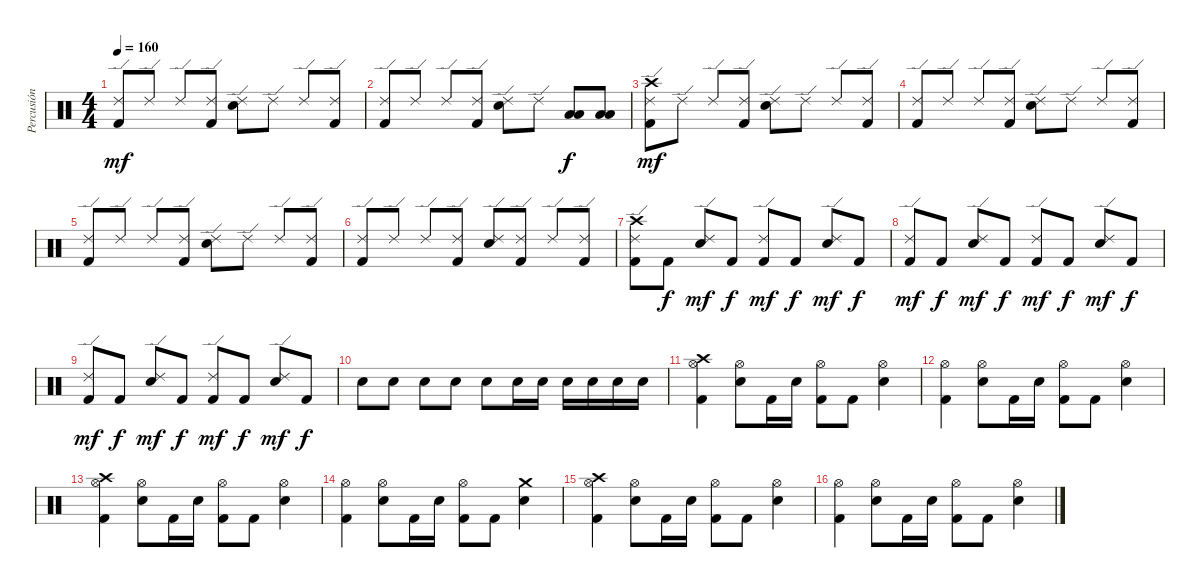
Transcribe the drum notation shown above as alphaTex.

\track ("Percusión" "Percusión") {instrument percussion}
\staff {score}
\articulation defaults
\ts (4 4)
\tempo 160
\clef neutral
\ks c
("Ride (edge) 2" "Kick (hit) 2").8{dy mf} "Ride (edge) 2".8 "Ride (edge) 2".8 ("Ride (edge) 2" "Kick (hit) 2").8 ("Ride (edge) 2" "Snare (hit) 2").8 "Ride (edge) 2".8 "Ride (edge) 2".8 ("Ride (edge) 2" "Kick (hit) 2").8 |
("Ride (edge) 2" "Kick (hit) 2").8 "Ride (edge) 2".8 "Ride (edge) 2".8 ("Ride (edge) 2" "Kick (hit) 2").8 ("Ride (edge) 2" "Snare (hit) 2").8 "Ride (edge) 2".8 ("Low Tom (hit)" "Low Floor Tom (hit)").8{dy f} ("Low Tom (hit)" "Low Floor Tom (hit)").8 |
("Crash high (hit)" "Ride (edge) 2" "Kick (hit) 2").8{dy mf} "Ride (edge) 2".8 "Ride (edge) 2".8 ("Ride (edge) 2" "Kick (hit) 2").8 ("Ride (edge) 2" "Snare (hit) 2").8 "Ride (edge) 2".8 "Ride (edge) 2".8 ("Ride (edge) 2" "Kick (hit) 2").8 |
("Ride (edge) 2" "Kick (hit) 2").8 "Ride (edge) 2".8 "Ride (edge) 2".8 ("Ride (edge) 2" "Kick (hit) 2").8 ("Ride (edge) 2" "Snare (hit) 2").8 "Ride (edge) 2".8 "Ride (edge) 2".8 ("Ride (edge) 2" "Kick (hit) 2").8 |
("Ride (edge) 2" "Kick (hit) 2").8 "Ride (edge) 2".8 "Ride (edge) 2".8 ("Ride (edge) 2" "Kick (hit) 2").8 ("Ride (edge) 2" "Snare (hit) 2").8 "Ride (edge) 2".8 "Ride (edge) 2".8 ("Ride (edge) 2" "Kick (hit) 2").8 |
("Ride (edge) 2" "Kick (hit) 2").8 "Ride (edge) 2".8 "Ride (edge) 2".8 ("Ride (edge) 2" "Kick (hit) 2").8 ("Ride (edge) 2" "Snare (hit) 2").8 ("Ride (edge) 2" "Kick (hit) 2").8 "Ride (edge) 2".8 ("Ride (edge) 2" "Kick (hit) 2").8 |
("Crash high (hit)" "Ride (edge) 2" "Kick (hit) 2").8 "Kick (hit) 2".8{dy f} ("Ride (edge) 2" "Snare (hit) 2").8{dy mf} "Kick (hit) 2".8{dy f} ("Ride (edge) 2" "Kick (hit) 2").8{dy mf} "Kick (hit) 2".8{dy f} ("Ride (edge) 2" "Snare (hit) 2").8{dy mf} "Kick (hit) 2".8{dy f} |
("Ride (edge) 2" "Kick (hit) 2").8{dy mf} "Kick (hit) 2".8{dy f} ("Ride (edge) 2" "Snare (hit) 2").8{dy mf} "Kick (hit) 2".8{dy f} ("Ride (edge) 2" "Kick (hit) 2").8{dy mf} "Kick (hit) 2".8{dy f} ("Ride (edge) 2" "Snare (hit) 2").8{dy mf} "Kick (hit) 2".8{dy f} |
("Ride (edge) 2" "Kick (hit) 2").8{dy mf} "Kick (hit) 2".8{dy f} ("Ride (edge) 2" "Snare (hit) 2").8{dy mf} "Kick (hit) 2".8{dy f} ("Ride (edge) 2" "Kick (hit) 2").8{dy mf} "Kick (hit) 2".8{dy f} ("Ride (edge) 2" "Snare (hit) 2").8{dy mf} "Kick (hit) 2".8{dy f} |
"Snare (hit) 2".8 "Snare (hit) 2".8 "Snare (hit) 2".8 "Snare (hit) 2".8 "Snare (hit) 2".8 "Snare (hit) 2".16 "Snare (hit) 2".16 "Snare (hit) 2".16 "Snare (hit) 2".16 "Snare (hit) 2".16 "Snare (hit) 2".16 |
("Crash high (hit)" "Hi-Hat (open)" "Kick (hit) 2").4 ("Hi-Hat (open)" "Snare (hit) 2").8 "Kick (hit) 2".16 "Snare (hit) 2".16 ("Hi-Hat (open)" "Kick (hit) 2").8 "Kick (hit) 2".8 ("Hi-Hat (open)" "Snare (hit) 2").4 |
("Hi-Hat (open)" "Kick (hit) 2").4 ("Hi-Hat (open)" "Snare (hit) 2").8 "Kick (hit) 2".16 "Snare (hit) 2".16 ("Hi-Hat (open)" "Kick (hit) 2").8 "Kick (hit) 2".8 ("Hi-Hat (open)" "Snare (hit) 2").4 |
("Crash high (hit)" "Hi-Hat (open)" "Kick (hit) 2").4 ("Hi-Hat (open)" "Snare (hit) 2").8 "Kick (hit) 2".16 "Snare (hit) 2".16 ("Hi-Hat (open)" "Kick (hit) 2").8 "Kick (hit) 2".8 ("Hi-Hat (open)" "Snare (hit) 2").4 |
("Hi-Hat (open)" "Kick (hit) 2").4 ("Hi-Hat (open)" "Snare (hit) 2").8 "Kick (hit) 2".16 "Snare (hit) 2".16 ("Hi-Hat (open)" "Kick (hit) 2").8 "Kick (hit) 2".8 ("Crash medium (hit)" "Snare (hit) 2").4 |
("Crash high (hit)" "Hi-Hat (open)" "Kick (hit) 2").4 ("Hi-Hat (open)" "Snare (hit) 2").8 "Kick (hit) 2".16 "Snare (hit) 2".16 ("Hi-Hat (open)" "Kick (hit) 2").8 "Kick (hit) 2".8 ("Hi-Hat (open)" "Snare (hit) 2").4 |
("Hi-Hat (open)" "Kick (hit) 2").4 ("Hi-Hat (open)" "Snare (hit) 2").8 "Kick (hit) 2".16 "Snare (hit) 2".16 ("Hi-Hat (open)" "Kick (hit) 2").8 "Kick (hit) 2".8 ("Hi-Hat (open)" "Snare (hit) 2").4
